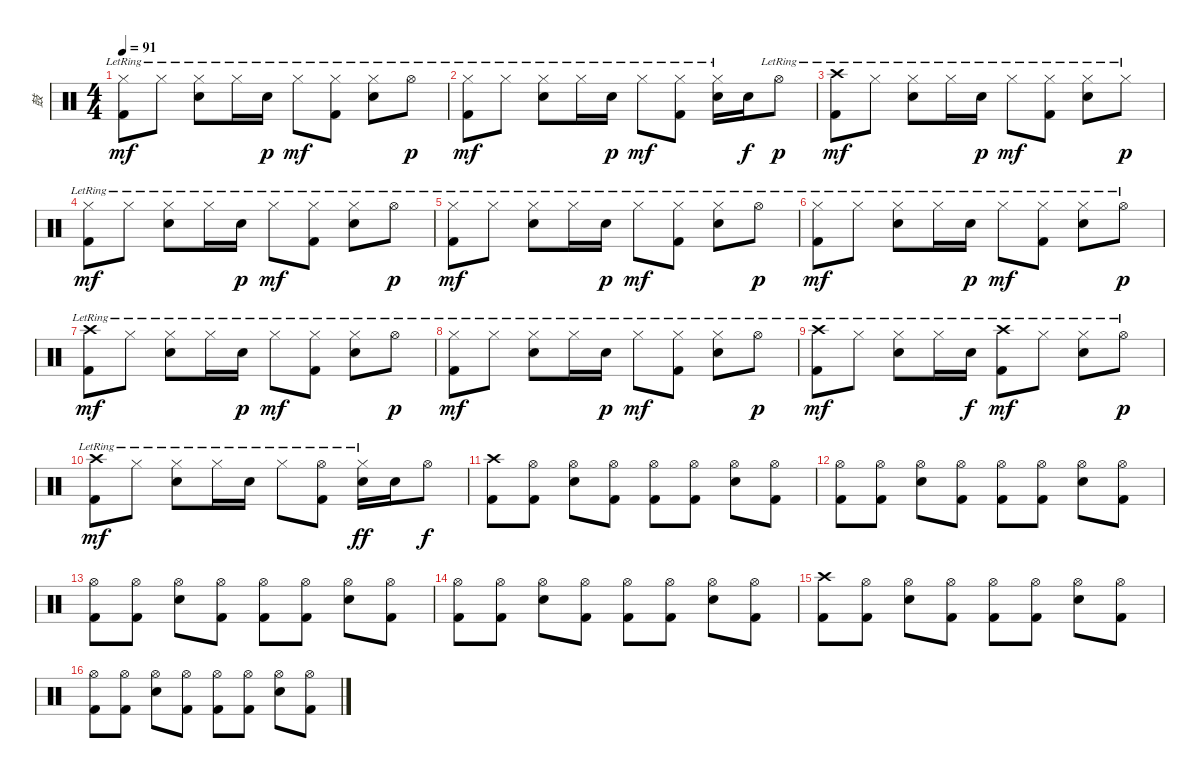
\track ("鼓" "鼓") {instrument percussion}
\staff {score}
\articulation defaults
\ts (4 4)
\tempo 91
\clef neutral
\ks c
("Hi-Hat (closed)"{lr} "Kick (hit) 2"{lr}).8{dy mf} "Hi-Hat (closed)"{lr}.8 ("Hi-Hat (closed)"{lr} "Electric Snare (hit)"{lr}).8 "Hi-Hat (closed)"{lr}.16 "Electric Snare (hit)"{lr}.16{dy p} "Hi-Hat (closed)"{lr}.8{dy mf} ("Hi-Hat (closed)"{lr} "Kick (hit) 2"{lr}).8 ("Hi-Hat (closed)"{lr} "Electric Snare (hit)"{lr}).8 "Hi-Hat (open)"{lr}.8{dy p} |
("Hi-Hat (closed)"{lr} "Kick (hit) 2"{lr}).8{dy mf} "Hi-Hat (closed)"{lr}.8 ("Hi-Hat (closed)"{lr} "Electric Snare (hit)"{lr}).8 "Hi-Hat (closed)"{lr}.16 "Electric Snare (hit)"{lr}.16{dy p} "Hi-Hat (closed)"{lr}.8{dy mf} ("Hi-Hat (closed)"{lr} "Kick (hit) 2"{lr}).8 ("Hi-Hat (closed)"{lr} "Electric Snare (hit)"{lr}).16 "Electric Snare (hit)".16{dy f} "Hi-Hat (open)"{lr}.8{dy p} |
("Crash high (hit)"{lr} "Kick (hit) 2"{lr}).8{dy mf} "Hi-Hat (closed)"{lr}.8 ("Hi-Hat (closed)"{lr} "Electric Snare (hit)"{lr}).8 "Hi-Hat (closed)"{lr}.16 "Electric Snare (hit)"{lr}.16{dy p} "Hi-Hat (closed)"{lr}.8{dy mf} ("Hi-Hat (closed)"{lr} "Kick (hit) 2"{lr}).8 ("Hi-Hat (closed)"{lr} "Electric Snare (hit)"{lr}).8 "Hi-Hat (closed)"{lr}.8{dy p} |
("Hi-Hat (closed)"{lr} "Kick (hit) 2"{lr}).8{dy mf} "Hi-Hat (closed)"{lr}.8 ("Hi-Hat (closed)"{lr} "Electric Snare (hit)"{lr}).8 "Hi-Hat (closed)"{lr}.16 "Electric Snare (hit)"{lr}.16{dy p} "Hi-Hat (closed)"{lr}.8{dy mf} ("Hi-Hat (closed)"{lr} "Kick (hit) 2"{lr}).8 ("Hi-Hat (closed)"{lr} "Electric Snare (hit)"{lr}).8 "Hi-Hat (open)"{lr}.8{dy p} |
("Hi-Hat (closed)"{lr} "Kick (hit) 2"{lr}).8{dy mf} "Hi-Hat (closed)"{lr}.8 ("Hi-Hat (closed)"{lr} "Electric Snare (hit)"{lr}).8 "Hi-Hat (closed)"{lr}.16 "Electric Snare (hit)"{lr}.16{dy p} "Hi-Hat (closed)"{lr}.8{dy mf} ("Hi-Hat (closed)"{lr} "Kick (hit) 2"{lr}).8 ("Hi-Hat (closed)"{lr} "Electric Snare (hit)"{lr}).8 "Hi-Hat (open)"{lr}.8{dy p} |
("Hi-Hat (closed)"{lr} "Kick (hit) 2"{lr}).8{dy mf} "Hi-Hat (closed)"{lr}.8 ("Hi-Hat (closed)"{lr} "Electric Snare (hit)"{lr}).8 "Hi-Hat (closed)"{lr}.16 "Electric Snare (hit)"{lr}.16{dy p} "Hi-Hat (closed)"{lr}.8{dy mf} ("Hi-Hat (closed)"{lr} "Kick (hit) 2"{lr}).8 ("Hi-Hat (closed)"{lr} "Electric Snare (hit)"{lr}).8 "Hi-Hat (open)"{lr}.8{dy p} |
("Crash high (hit)"{lr} "Kick (hit) 2"{lr}).8{dy mf} "Hi-Hat (closed)"{lr}.8 ("Hi-Hat (closed)"{lr} "Electric Snare (hit)"{lr}).8 "Hi-Hat (closed)"{lr}.16 "Electric Snare (hit)"{lr}.16{dy p} "Hi-Hat (closed)"{lr}.8{dy mf} ("Hi-Hat (closed)"{lr} "Kick (hit) 2"{lr}).8 ("Hi-Hat (closed)"{lr} "Electric Snare (hit)"{lr}).8 "Hi-Hat (open)"{lr}.8{dy p} |
("Hi-Hat (closed)"{lr} "Kick (hit) 2"{lr}).8{dy mf} "Hi-Hat (closed)"{lr}.8 ("Hi-Hat (closed)"{lr} "Electric Snare (hit)"{lr}).8 "Hi-Hat (closed)"{lr}.16 "Electric Snare (hit)"{lr}.16{dy p} "Hi-Hat (closed)"{lr}.8{dy mf} ("Hi-Hat (closed)"{lr} "Kick (hit) 2"{lr}).8 ("Hi-Hat (closed)"{lr} "Electric Snare (hit)"{lr}).8 "Hi-Hat (open)"{lr}.8{dy p} |
("Crash high (hit)"{lr} "Kick (hit) 2"{lr}).8{dy mf} "Hi-Hat (closed)"{lr}.8 ("Hi-Hat (closed)"{lr} "Electric Snare (hit)"{lr}).8 "Hi-Hat (closed)"{lr}.16 "Electric Snare (hit)"{lr}.16{dy f} ("Crash high (hit)"{lr} "Kick (hit) 2").8{dy mf} "Hi-Hat (closed)"{lr}.8 ("Hi-Hat (closed)"{lr} "Electric Snare (hit)"{lr}).8 "Hi-Hat (open)"{lr}.8{dy p} |
("Crash high (hit)"{lr} "Kick (hit) 2"{lr}).8{dy mf} "Hi-Hat (closed)"{lr}.8 ("Hi-Hat (closed)"{lr} "Electric Snare (hit)"{lr}).8 "Hi-Hat (closed)"{lr}.16 "Electric Snare (hit)"{lr}.16 "Hi-Hat (closed)"{lr}.8 ("Hi-Hat (open)"{lr} "Kick (hit) 2").8 ("Hi-Hat (closed)"{lr} "Electric Snare (hit)"{lr}).16{dy ff} "Electric Snare (hit)".16 "Hi-Hat (open)".8{dy f} |
("Crash high (hit)" "Kick (hit) 2").8 ("Hi-Hat (open)" "Kick (hit) 2").8 ("Hi-Hat (open)" "Electric Snare (hit)").8 ("Hi-Hat (open)" "Kick (hit) 2").8 ("Hi-Hat (open)" "Kick (hit) 2").8 ("Hi-Hat (open)" "Kick (hit) 2").8 ("Hi-Hat (open)" "Electric Snare (hit)").8 ("Hi-Hat (open)" "Kick (hit) 2").8 |
("Hi-Hat (open)" "Kick (hit) 2").8 ("Hi-Hat (open)" "Kick (hit) 2").8 ("Hi-Hat (open)" "Electric Snare (hit)").8 ("Hi-Hat (open)" "Kick (hit) 2").8 ("Hi-Hat (open)" "Kick (hit) 2").8 ("Hi-Hat (open)" "Kick (hit) 2").8 ("Hi-Hat (open)" "Electric Snare (hit)").8 ("Hi-Hat (open)" "Kick (hit) 2").8 |
("Hi-Hat (open)" "Kick (hit) 2").8 ("Hi-Hat (open)" "Kick (hit) 2").8 ("Hi-Hat (open)" "Electric Snare (hit)").8 ("Hi-Hat (open)" "Kick (hit) 2").8 ("Hi-Hat (open)" "Kick (hit) 2").8 ("Hi-Hat (open)" "Kick (hit) 2").8 ("Hi-Hat (open)" "Electric Snare (hit)").8 ("Hi-Hat (open)" "Kick (hit) 2").8 |
("Hi-Hat (open)" "Kick (hit) 2").8 ("Hi-Hat (open)" "Kick (hit) 2").8 ("Hi-Hat (open)" "Electric Snare (hit)").8 ("Hi-Hat (open)" "Kick (hit) 2").8 ("Hi-Hat (open)" "Kick (hit) 2").8 ("Hi-Hat (open)" "Kick (hit) 2").8 ("Hi-Hat (open)" "Electric Snare (hit)").8 ("Hi-Hat (open)" "Kick (hit) 2").8 |
("Crash high (hit)" "Kick (hit) 2").8 ("Hi-Hat (open)" "Kick (hit) 2").8 ("Hi-Hat (open)" "Electric Snare (hit)").8 ("Hi-Hat (open)" "Kick (hit) 2").8 ("Hi-Hat (open)" "Kick (hit) 2").8 ("Hi-Hat (open)" "Kick (hit) 2").8 ("Hi-Hat (open)" "Electric Snare (hit)").8 ("Hi-Hat (open)" "Kick (hit) 2").8 |
("Hi-Hat (open)" "Kick (hit) 2").8 ("Hi-Hat (open)" "Kick (hit) 2").8 ("Hi-Hat (open)" "Electric Snare (hit)").8 ("Hi-Hat (open)" "Kick (hit) 2").8 ("Hi-Hat (open)" "Kick (hit) 2").8 ("Hi-Hat (open)" "Kick (hit) 2").8 ("Hi-Hat (open)" "Electric Snare (hit)").8 ("Hi-Hat (open)" "Kick (hit) 2").8
